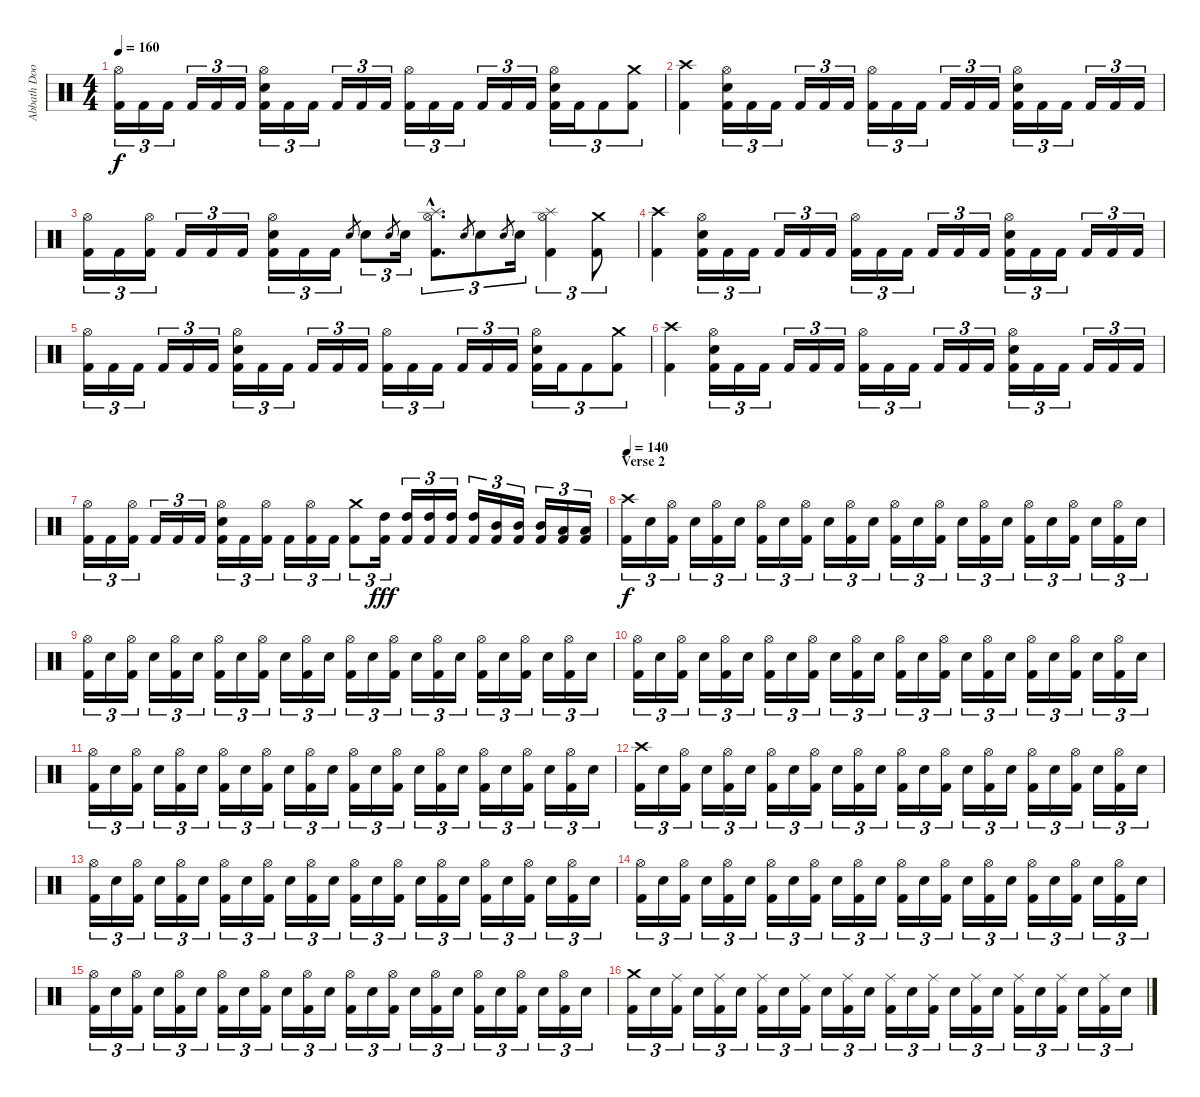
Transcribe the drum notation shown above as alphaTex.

\track ("Abbath Doom Occulta" "Abbath Doo") {instrument percussion}
\staff {score}
\articulation defaults
\ts (4 4)
\tempo 160
\clef neutral
\ks c
("Hi-Hat (open)" "Kick (hit) 2").16{tu (3 2) dy f} "Kick (hit) 2".16{tu (3 2)} "Kick (hit) 2".16{tu (3 2)} "Kick (hit) 2".16{tu (3 2)} "Kick (hit) 2".16{tu (3 2)} "Kick (hit) 2".16{tu (3 2)} ("Hi-Hat (open)" "Electric Snare (hit)" "Kick (hit) 2").16{tu (3 2)} "Kick (hit) 2".16{tu (3 2)} "Kick (hit) 2".16{tu (3 2)} "Kick (hit) 2".16{tu (3 2)} "Kick (hit) 2".16{tu (3 2)} "Kick (hit) 2".16{tu (3 2)} ("Hi-Hat (open)" "Kick (hit) 2").16{tu (3 2)} "Kick (hit) 2".16{tu (3 2)} "Kick (hit) 2".16{tu (3 2)} "Kick (hit) 2".16{tu (3 2)} "Kick (hit) 2".16{tu (3 2)} "Kick (hit) 2".16{tu (3 2)} ("Hi-Hat (open)" "Electric Snare (hit)" "Kick (hit) 2").16{tu (3 2)} "Kick (hit) 2".16{tu (3 2)} "Kick (hit) 2".8{tu (3 2)} ("Crash medium (hit)" "Kick (hit) 2").8{tu (3 2)} |
("Crash high (hit)" "Kick (hit) 2").4 ("Hi-Hat (open)" "Electric Snare (hit)" "Kick (hit) 2").16{tu (3 2)} "Kick (hit) 2".16{tu (3 2)} "Kick (hit) 2".16{tu (3 2)} "Kick (hit) 2".16{tu (3 2)} "Kick (hit) 2".16{tu (3 2)} "Kick (hit) 2".16{tu (3 2)} ("Hi-Hat (open)" "Kick (hit) 2").16{tu (3 2)} "Kick (hit) 2".16{tu (3 2)} "Kick (hit) 2".16{tu (3 2)} "Kick (hit) 2".16{tu (3 2)} "Kick (hit) 2".16{tu (3 2)} "Kick (hit) 2".16{tu (3 2)} ("Hi-Hat (open)" "Electric Snare (hit)" "Kick (hit) 2").16{tu (3 2)} "Kick (hit) 2".16{tu (3 2)} "Kick (hit) 2".16{tu (3 2)} "Kick (hit) 2".16{tu (3 2)} "Kick (hit) 2".16{tu (3 2)} "Kick (hit) 2".16{tu (3 2)} |
("Hi-Hat (open)" "Kick (hit) 2").16{tu (3 2)} "Kick (hit) 2".16{tu (3 2)} ("Hi-Hat (open)" "Kick (hit) 2").16{tu (3 2)} "Kick (hit) 2".16{tu (3 2)} "Kick (hit) 2".16{tu (3 2)} "Kick (hit) 2".16{tu (3 2)} ("Hi-Hat (open)" "Electric Snare (hit)" "Kick (hit) 2").16{tu (3 2)} "Kick (hit) 2".16{tu (3 2)} "Kick (hit) 2".16{tu (3 2)} "Electric Snare (hit)".8{gr} "Electric Snare (hit)".8{tu (3 2)} "Electric Snare (hit)".8{gr} "Electric Snare (hit)".16{tu (3 2)} ("Splash (hit)"{hac} "Hi-Hat (open)"{hac} "Kick (hit) 2"{hac}).8{d tu (3 2)} "Electric Snare (hit)".8{gr} "Electric Snare (hit)".8{tu (3 2)} "Electric Snare (hit)".8{gr} "Electric Snare (hit)".16{tu (3 2)} ("Splash (hit)" "Hi-Hat (open)" "Kick (hit) 2").4{tu (3 2)} ("Crash medium (hit)" "Kick (hit) 2").8{tu (3 2)} |
("Crash high (hit)" "Kick (hit) 2").4 ("Hi-Hat (open)" "Electric Snare (hit)" "Kick (hit) 2").16{tu (3 2)} "Kick (hit) 2".16{tu (3 2)} "Kick (hit) 2".16{tu (3 2)} "Kick (hit) 2".16{tu (3 2)} "Kick (hit) 2".16{tu (3 2)} "Kick (hit) 2".16{tu (3 2)} ("Hi-Hat (open)" "Kick (hit) 2").16{tu (3 2)} "Kick (hit) 2".16{tu (3 2)} "Kick (hit) 2".16{tu (3 2)} "Kick (hit) 2".16{tu (3 2)} "Kick (hit) 2".16{tu (3 2)} "Kick (hit) 2".16{tu (3 2)} ("Hi-Hat (open)" "Electric Snare (hit)" "Kick (hit) 2").16{tu (3 2)} "Kick (hit) 2".16{tu (3 2)} "Kick (hit) 2".16{tu (3 2)} "Kick (hit) 2".16{tu (3 2)} "Kick (hit) 2".16{tu (3 2)} "Kick (hit) 2".16{tu (3 2)} |
("Hi-Hat (open)" "Kick (hit) 2").16{tu (3 2)} "Kick (hit) 2".16{tu (3 2)} "Kick (hit) 2".16{tu (3 2)} "Kick (hit) 2".16{tu (3 2)} "Kick (hit) 2".16{tu (3 2)} "Kick (hit) 2".16{tu (3 2)} ("Hi-Hat (open)" "Electric Snare (hit)" "Kick (hit) 2").16{tu (3 2)} "Kick (hit) 2".16{tu (3 2)} "Kick (hit) 2".16{tu (3 2)} "Kick (hit) 2".16{tu (3 2)} "Kick (hit) 2".16{tu (3 2)} "Kick (hit) 2".16{tu (3 2)} ("Hi-Hat (open)" "Kick (hit) 2").16{tu (3 2)} "Kick (hit) 2".16{tu (3 2)} "Kick (hit) 2".16{tu (3 2)} "Kick (hit) 2".16{tu (3 2)} "Kick (hit) 2".16{tu (3 2)} "Kick (hit) 2".16{tu (3 2)} ("Hi-Hat (open)" "Electric Snare (hit)" "Kick (hit) 2").16{tu (3 2)} "Kick (hit) 2".16{tu (3 2)} "Kick (hit) 2".8{tu (3 2)} ("Crash medium (hit)" "Kick (hit) 2").8{tu (3 2)} |
("Crash high (hit)" "Kick (hit) 2").4 ("Hi-Hat (open)" "Electric Snare (hit)" "Kick (hit) 2").16{tu (3 2)} "Kick (hit) 2".16{tu (3 2)} "Kick (hit) 2".16{tu (3 2)} "Kick (hit) 2".16{tu (3 2)} "Kick (hit) 2".16{tu (3 2)} "Kick (hit) 2".16{tu (3 2)} ("Hi-Hat (open)" "Kick (hit) 2").16{tu (3 2)} "Kick (hit) 2".16{tu (3 2)} "Kick (hit) 2".16{tu (3 2)} "Kick (hit) 2".16{tu (3 2)} "Kick (hit) 2".16{tu (3 2)} "Kick (hit) 2".16{tu (3 2)} ("Hi-Hat (open)" "Electric Snare (hit)" "Kick (hit) 2").16{tu (3 2)} "Kick (hit) 2".16{tu (3 2)} "Kick (hit) 2".16{tu (3 2)} "Kick (hit) 2".16{tu (3 2)} "Kick (hit) 2".16{tu (3 2)} "Kick (hit) 2".16{tu (3 2)} |
("Hi-Hat (open)" "Kick (hit) 2").16{tu (3 2)} "Kick (hit) 2".16{tu (3 2)} ("Hi-Hat (open)" "Kick (hit) 2").16{tu (3 2)} "Kick (hit) 2".16{tu (3 2)} "Kick (hit) 2".16{tu (3 2)} "Kick (hit) 2".16{tu (3 2)} ("Hi-Hat (open)" "Electric Snare (hit)" "Kick (hit) 2").16{tu (3 2)} "Kick (hit) 2".16{tu (3 2)} ("Hi-Hat (open)" "Kick (hit) 2").16{tu (3 2)} "Kick (hit) 2".16{tu (3 2)} ("Hi-Hat (open)" "Kick (hit) 2").16{tu (3 2)} "Kick (hit) 2".16{tu (3 2)} ("Crash medium (hit)" "Kick (hit) 2").8{tu (3 2)} ("High Tom (hit)" "Kick (hit) 2").16{tu (3 2) dy fff} ("High Tom (hit)" "Kick (hit) 2").16{tu (3 2)} ("High Tom (hit)" "Kick (hit) 2").16{tu (3 2)} ("High Tom (hit)" "Kick (hit) 2").16{tu (3 2)} ("High Tom (hit)" "Kick (hit) 2").16{tu (3 2)} ("Mid Tom (hit)" "Kick (hit) 2").16{tu (3 2)} ("Mid Tom (hit)" "Kick (hit) 2").16{tu (3 2)} ("Mid Tom (hit)" "Kick (hit) 2").16{tu (3 2)} ("Low Tom (hit)" "Kick (hit) 2").16{tu (3 2)} ("Low Tom (hit)" "Kick (hit) 2").16{tu (3 2)} |
\section ("" "Verse 2")
\tempo 140
("Crash high (hit)" "Kick (hit) 2").16{tu (3 2) dy f} "Electric Snare (hit)".16{tu (3 2)} ("Hi-Hat (open)" "Kick (hit) 2").16{tu (3 2)} "Electric Snare (hit)".16{tu (3 2)} ("Hi-Hat (open)" "Kick (hit) 2").16{tu (3 2)} "Electric Snare (hit)".16{tu (3 2)} ("Hi-Hat (open)" "Kick (hit) 2").16{tu (3 2)} "Electric Snare (hit)".16{tu (3 2)} ("Hi-Hat (open)" "Kick (hit) 2").16{tu (3 2)} "Electric Snare (hit)".16{tu (3 2)} ("Hi-Hat (open)" "Kick (hit) 2").16{tu (3 2)} "Electric Snare (hit)".16{tu (3 2)} ("Hi-Hat (open)" "Kick (hit) 2").16{tu (3 2)} "Electric Snare (hit)".16{tu (3 2)} ("Hi-Hat (open)" "Kick (hit) 2").16{tu (3 2)} "Electric Snare (hit)".16{tu (3 2)} ("Hi-Hat (open)" "Kick (hit) 2").16{tu (3 2)} "Electric Snare (hit)".16{tu (3 2)} ("Hi-Hat (open)" "Kick (hit) 2").16{tu (3 2)} "Electric Snare (hit)".16{tu (3 2)} ("Hi-Hat (open)" "Kick (hit) 2").16{tu (3 2)} "Electric Snare (hit)".16{tu (3 2)} ("Hi-Hat (open)" "Kick (hit) 2").16{tu (3 2)} "Electric Snare (hit)".16{tu (3 2)} |
("Hi-Hat (open)" "Kick (hit) 2").16{tu (3 2)} "Electric Snare (hit)".16{tu (3 2)} ("Hi-Hat (open)" "Kick (hit) 2").16{tu (3 2)} "Electric Snare (hit)".16{tu (3 2)} ("Hi-Hat (open)" "Kick (hit) 2").16{tu (3 2)} "Electric Snare (hit)".16{tu (3 2)} ("Hi-Hat (open)" "Kick (hit) 2").16{tu (3 2)} "Electric Snare (hit)".16{tu (3 2)} ("Hi-Hat (open)" "Kick (hit) 2").16{tu (3 2)} "Electric Snare (hit)".16{tu (3 2)} ("Hi-Hat (open)" "Kick (hit) 2").16{tu (3 2)} "Electric Snare (hit)".16{tu (3 2)} ("Hi-Hat (open)" "Kick (hit) 2").16{tu (3 2)} "Electric Snare (hit)".16{tu (3 2)} ("Hi-Hat (open)" "Kick (hit) 2").16{tu (3 2)} "Electric Snare (hit)".16{tu (3 2)} ("Hi-Hat (open)" "Kick (hit) 2").16{tu (3 2)} "Electric Snare (hit)".16{tu (3 2)} ("Hi-Hat (open)" "Kick (hit) 2").16{tu (3 2)} "Electric Snare (hit)".16{tu (3 2)} ("Hi-Hat (open)" "Kick (hit) 2").16{tu (3 2)} "Electric Snare (hit)".16{tu (3 2)} ("Hi-Hat (open)" "Kick (hit) 2").16{tu (3 2)} "Electric Snare (hit)".16{tu (3 2)} |
("Hi-Hat (open)" "Kick (hit) 2").16{tu (3 2)} "Electric Snare (hit)".16{tu (3 2)} ("Hi-Hat (open)" "Kick (hit) 2").16{tu (3 2)} "Electric Snare (hit)".16{tu (3 2)} ("Hi-Hat (open)" "Kick (hit) 2").16{tu (3 2)} "Electric Snare (hit)".16{tu (3 2)} ("Hi-Hat (open)" "Kick (hit) 2").16{tu (3 2)} "Electric Snare (hit)".16{tu (3 2)} ("Hi-Hat (open)" "Kick (hit) 2").16{tu (3 2)} "Electric Snare (hit)".16{tu (3 2)} ("Hi-Hat (open)" "Kick (hit) 2").16{tu (3 2)} "Electric Snare (hit)".16{tu (3 2)} ("Hi-Hat (open)" "Kick (hit) 2").16{tu (3 2)} "Electric Snare (hit)".16{tu (3 2)} ("Hi-Hat (open)" "Kick (hit) 2").16{tu (3 2)} "Electric Snare (hit)".16{tu (3 2)} ("Hi-Hat (open)" "Kick (hit) 2").16{tu (3 2)} "Electric Snare (hit)".16{tu (3 2)} ("Hi-Hat (open)" "Kick (hit) 2").16{tu (3 2)} "Electric Snare (hit)".16{tu (3 2)} ("Hi-Hat (open)" "Kick (hit) 2").16{tu (3 2)} "Electric Snare (hit)".16{tu (3 2)} ("Hi-Hat (open)" "Kick (hit) 2").16{tu (3 2)} "Electric Snare (hit)".16{tu (3 2)} |
("Hi-Hat (open)" "Kick (hit) 2").16{tu (3 2)} "Electric Snare (hit)".16{tu (3 2)} ("Hi-Hat (open)" "Kick (hit) 2").16{tu (3 2)} "Electric Snare (hit)".16{tu (3 2)} ("Hi-Hat (open)" "Kick (hit) 2").16{tu (3 2)} "Electric Snare (hit)".16{tu (3 2)} ("Hi-Hat (open)" "Kick (hit) 2").16{tu (3 2)} "Electric Snare (hit)".16{tu (3 2)} ("Hi-Hat (open)" "Kick (hit) 2").16{tu (3 2)} "Electric Snare (hit)".16{tu (3 2)} ("Hi-Hat (open)" "Kick (hit) 2").16{tu (3 2)} "Electric Snare (hit)".16{tu (3 2)} ("Hi-Hat (open)" "Kick (hit) 2").16{tu (3 2)} "Electric Snare (hit)".16{tu (3 2)} ("Hi-Hat (open)" "Kick (hit) 2").16{tu (3 2)} "Electric Snare (hit)".16{tu (3 2)} ("Hi-Hat (open)" "Kick (hit) 2").16{tu (3 2)} "Electric Snare (hit)".16{tu (3 2)} ("Hi-Hat (open)" "Kick (hit) 2").16{tu (3 2)} "Electric Snare (hit)".16{tu (3 2)} ("Hi-Hat (open)" "Kick (hit) 2").16{tu (3 2)} "Electric Snare (hit)".16{tu (3 2)} ("Hi-Hat (open)" "Kick (hit) 2").16{tu (3 2)} "Electric Snare (hit)".16{tu (3 2)} |
("Crash high (hit)" "Kick (hit) 2").16{tu (3 2)} "Electric Snare (hit)".16{tu (3 2)} ("Hi-Hat (open)" "Kick (hit) 2").16{tu (3 2)} "Electric Snare (hit)".16{tu (3 2)} ("Hi-Hat (open)" "Kick (hit) 2").16{tu (3 2)} "Electric Snare (hit)".16{tu (3 2)} ("Hi-Hat (open)" "Kick (hit) 2").16{tu (3 2)} "Electric Snare (hit)".16{tu (3 2)} ("Hi-Hat (open)" "Kick (hit) 2").16{tu (3 2)} "Electric Snare (hit)".16{tu (3 2)} ("Hi-Hat (open)" "Kick (hit) 2").16{tu (3 2)} "Electric Snare (hit)".16{tu (3 2)} ("Hi-Hat (open)" "Kick (hit) 2").16{tu (3 2)} "Electric Snare (hit)".16{tu (3 2)} ("Hi-Hat (open)" "Kick (hit) 2").16{tu (3 2)} "Electric Snare (hit)".16{tu (3 2)} ("Hi-Hat (open)" "Kick (hit) 2").16{tu (3 2)} "Electric Snare (hit)".16{tu (3 2)} ("Hi-Hat (open)" "Kick (hit) 2").16{tu (3 2)} "Electric Snare (hit)".16{tu (3 2)} ("Hi-Hat (open)" "Kick (hit) 2").16{tu (3 2)} "Electric Snare (hit)".16{tu (3 2)} ("Hi-Hat (open)" "Kick (hit) 2").16{tu (3 2)} "Electric Snare (hit)".16{tu (3 2)} |
("Hi-Hat (open)" "Kick (hit) 2").16{tu (3 2)} "Electric Snare (hit)".16{tu (3 2)} ("Hi-Hat (open)" "Kick (hit) 2").16{tu (3 2)} "Electric Snare (hit)".16{tu (3 2)} ("Hi-Hat (open)" "Kick (hit) 2").16{tu (3 2)} "Electric Snare (hit)".16{tu (3 2)} ("Hi-Hat (open)" "Kick (hit) 2").16{tu (3 2)} "Electric Snare (hit)".16{tu (3 2)} ("Hi-Hat (open)" "Kick (hit) 2").16{tu (3 2)} "Electric Snare (hit)".16{tu (3 2)} ("Hi-Hat (open)" "Kick (hit) 2").16{tu (3 2)} "Electric Snare (hit)".16{tu (3 2)} ("Hi-Hat (open)" "Kick (hit) 2").16{tu (3 2)} "Electric Snare (hit)".16{tu (3 2)} ("Hi-Hat (open)" "Kick (hit) 2").16{tu (3 2)} "Electric Snare (hit)".16{tu (3 2)} ("Hi-Hat (open)" "Kick (hit) 2").16{tu (3 2)} "Electric Snare (hit)".16{tu (3 2)} ("Hi-Hat (open)" "Kick (hit) 2").16{tu (3 2)} "Electric Snare (hit)".16{tu (3 2)} ("Hi-Hat (open)" "Kick (hit) 2").16{tu (3 2)} "Electric Snare (hit)".16{tu (3 2)} ("Hi-Hat (open)" "Kick (hit) 2").16{tu (3 2)} "Electric Snare (hit)".16{tu (3 2)} |
("Hi-Hat (open)" "Kick (hit) 2").16{tu (3 2)} "Electric Snare (hit)".16{tu (3 2)} ("Hi-Hat (open)" "Kick (hit) 2").16{tu (3 2)} "Electric Snare (hit)".16{tu (3 2)} ("Hi-Hat (open)" "Kick (hit) 2").16{tu (3 2)} "Electric Snare (hit)".16{tu (3 2)} ("Hi-Hat (open)" "Kick (hit) 2").16{tu (3 2)} "Electric Snare (hit)".16{tu (3 2)} ("Hi-Hat (open)" "Kick (hit) 2").16{tu (3 2)} "Electric Snare (hit)".16{tu (3 2)} ("Hi-Hat (open)" "Kick (hit) 2").16{tu (3 2)} "Electric Snare (hit)".16{tu (3 2)} ("Hi-Hat (open)" "Kick (hit) 2").16{tu (3 2)} "Electric Snare (hit)".16{tu (3 2)} ("Hi-Hat (open)" "Kick (hit) 2").16{tu (3 2)} "Electric Snare (hit)".16{tu (3 2)} ("Hi-Hat (open)" "Kick (hit) 2").16{tu (3 2)} "Electric Snare (hit)".16{tu (3 2)} ("Hi-Hat (open)" "Kick (hit) 2").16{tu (3 2)} "Electric Snare (hit)".16{tu (3 2)} ("Hi-Hat (open)" "Kick (hit) 2").16{tu (3 2)} "Electric Snare (hit)".16{tu (3 2)} ("Hi-Hat (open)" "Kick (hit) 2").16{tu (3 2)} "Electric Snare (hit)".16{tu (3 2)} |
("Hi-Hat (open)" "Kick (hit) 2").16{tu (3 2)} "Electric Snare (hit)".16{tu (3 2)} ("Hi-Hat (open)" "Kick (hit) 2").16{tu (3 2)} "Electric Snare (hit)".16{tu (3 2)} ("Hi-Hat (open)" "Kick (hit) 2").16{tu (3 2)} "Electric Snare (hit)".16{tu (3 2)} ("Hi-Hat (open)" "Kick (hit) 2").16{tu (3 2)} "Electric Snare (hit)".16{tu (3 2)} ("Hi-Hat (open)" "Kick (hit) 2").16{tu (3 2)} "Electric Snare (hit)".16{tu (3 2)} ("Hi-Hat (open)" "Kick (hit) 2").16{tu (3 2)} "Electric Snare (hit)".16{tu (3 2)} ("Hi-Hat (open)" "Kick (hit) 2").16{tu (3 2)} "Electric Snare (hit)".16{tu (3 2)} ("Hi-Hat (open)" "Kick (hit) 2").16{tu (3 2)} "Electric Snare (hit)".16{tu (3 2)} ("Hi-Hat (open)" "Kick (hit) 2").16{tu (3 2)} "Electric Snare (hit)".16{tu (3 2)} ("Hi-Hat (open)" "Kick (hit) 2").16{tu (3 2)} "Electric Snare (hit)".16{tu (3 2)} ("Hi-Hat (open)" "Kick (hit) 2").16{tu (3 2)} "Electric Snare (hit)".16{tu (3 2)} ("Hi-Hat (open)" "Kick (hit) 2").16{tu (3 2)} "Electric Snare (hit)".16{tu (3 2)} |
("Crash medium (hit)" "Kick (hit) 2").16{tu (3 2)} "Electric Snare (hit)".16{tu (3 2)} ("Ride (middle)" "Kick (hit) 2").16{tu (3 2)} "Electric Snare (hit)".16{tu (3 2)} ("Ride (middle)" "Kick (hit) 2").16{tu (3 2)} "Electric Snare (hit)".16{tu (3 2)} ("Ride (middle)" "Kick (hit) 2").16{tu (3 2)} "Electric Snare (hit)".16{tu (3 2)} ("Ride (middle)" "Kick (hit) 2").16{tu (3 2)} "Electric Snare (hit)".16{tu (3 2)} ("Ride (middle)" "Kick (hit) 2").16{tu (3 2)} "Electric Snare (hit)".16{tu (3 2)} ("Ride (middle)" "Kick (hit) 2").16{tu (3 2)} "Electric Snare (hit)".16{tu (3 2)} ("Ride (middle)" "Kick (hit) 2").16{tu (3 2)} "Electric Snare (hit)".16{tu (3 2)} ("Ride (middle)" "Kick (hit) 2").16{tu (3 2)} "Electric Snare (hit)".16{tu (3 2)} ("Ride (middle)" "Kick (hit) 2").16{tu (3 2)} "Electric Snare (hit)".16{tu (3 2)} ("Ride (middle)" "Kick (hit) 2").16{tu (3 2)} "Electric Snare (hit)".16{tu (3 2)} ("Ride (middle)" "Kick (hit) 2").16{tu (3 2)} "Electric Snare (hit)".16{tu (3 2)}
